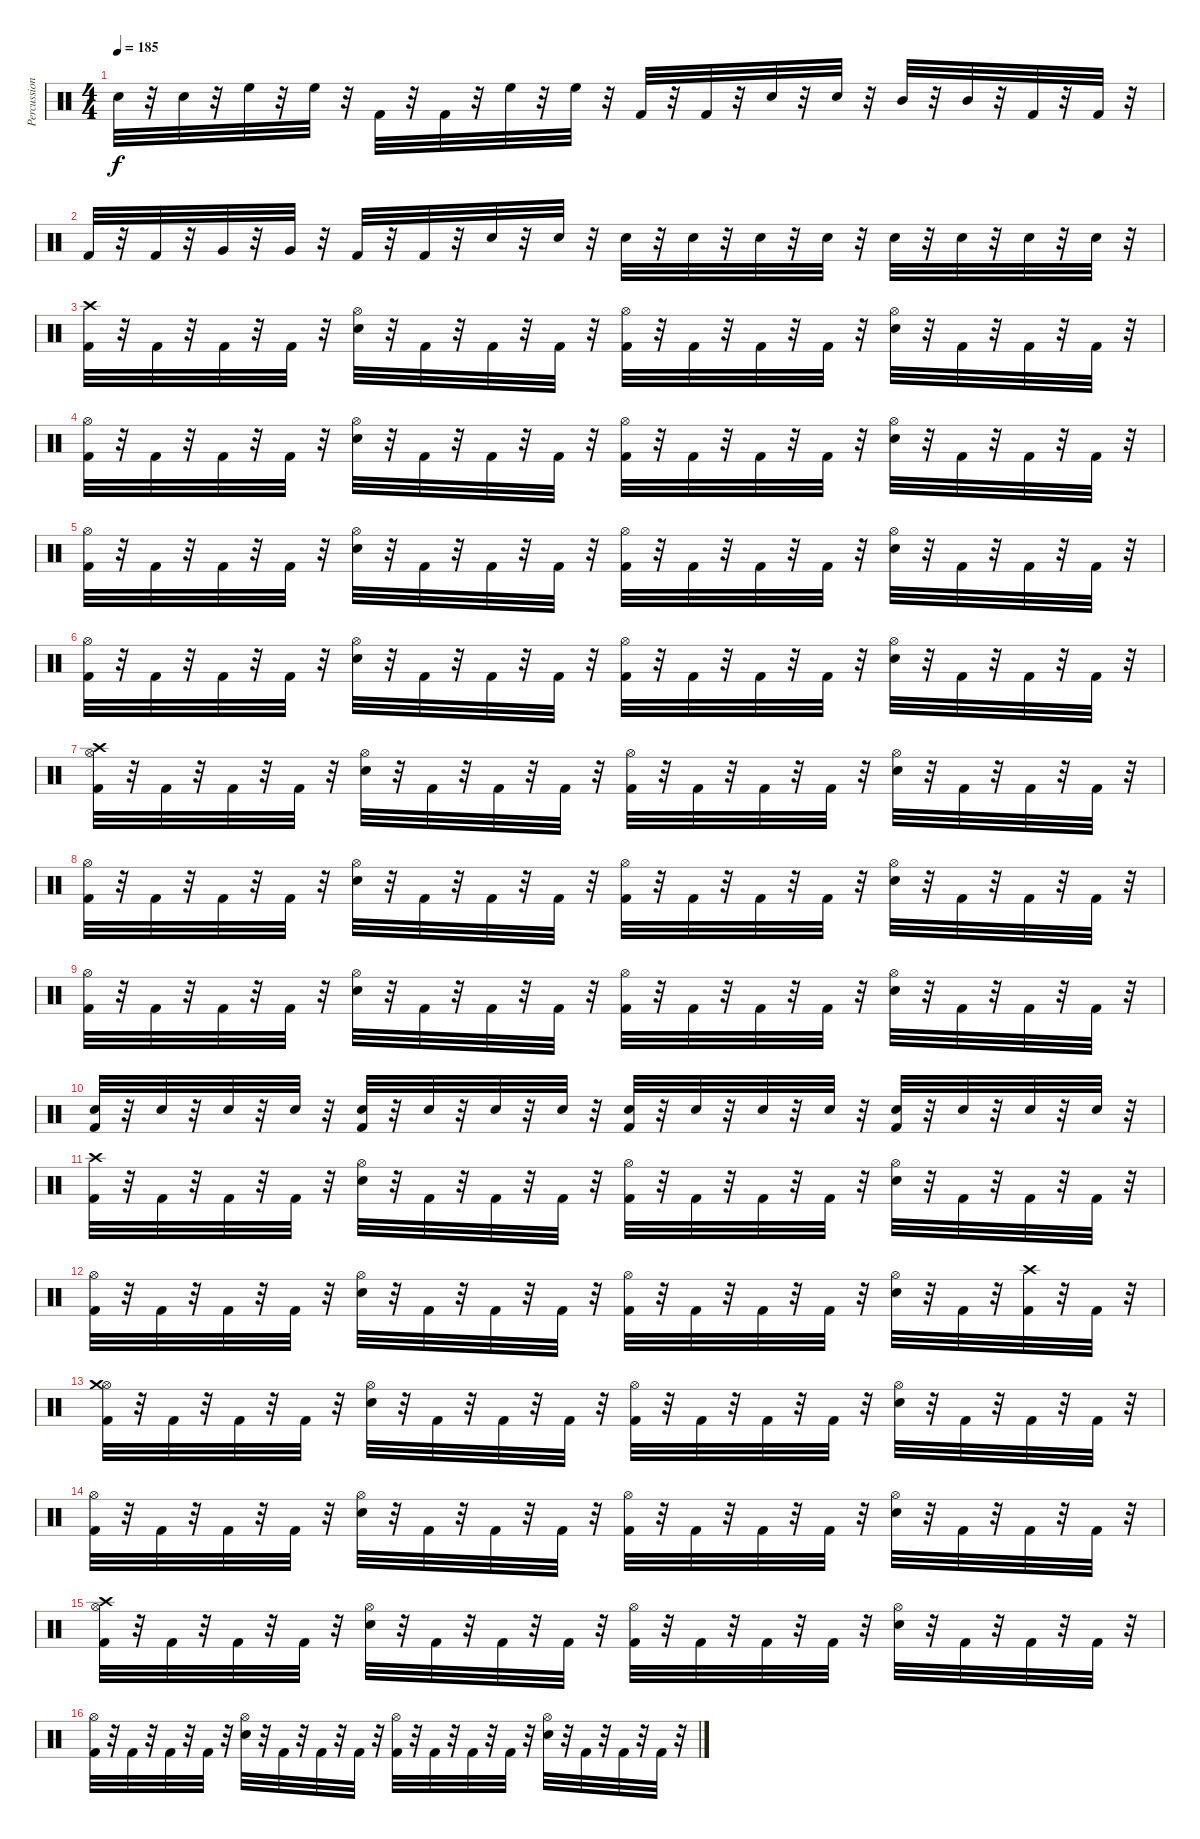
\track ("Percussion" "Percussion") {instrument percussion}
\staff {score}
\articulation defaults
\ts (4 4)
\tempo 185
\clef neutral
\ks c "Snare (hit) 2".32{dy f}
r.32 "Snare (hit) 2".32 r.32 "High Floor Tom (hit)".32 r.32 "High Floor Tom (hit)".32 r.32 "Kick (hit) 2".32 r.32 "Kick (hit) 2".32 r.32 "High Floor Tom (hit)".32 r.32 "High Floor Tom (hit)".32 r.32 "Kick (hit) 2".32 r.32 "Kick (hit) 2".32 r.32 "Snare (hit) 2".32 r.32 "Snare (hit) 2".32 r.32 "Mid Tom (hit)".32 r.32 "Mid Tom (hit)".32 r.32 "Kick (hit) 2".32 r.32 "Kick (hit) 2".32 r.32 |
"Kick (hit) 2".32 r.32 "Kick (hit) 2".32 r.32 "Very Low Tom (hit)".32 r.32 "Very Low Tom (hit)".32 r.32 "Kick (hit) 2".32 r.32 "Kick (hit) 2".32 r.32 "Snare (hit) 2".32 r.32 "Snare (hit) 2".32 r.32 "Snare (hit) 2".32 r.32 "Snare (hit) 2".32 r.32 "Snare (hit) 2".32 r.32 "Snare (hit) 2".32 r.32 "Snare (hit) 2".32 r.32 "Snare (hit) 2".32 r.32 "Snare (hit) 2".32 r.32 "Snare (hit) 2".32 r.32 |
("Kick (hit) 2" "Crash high (hit)").32 r.32 "Kick (hit) 2".32 r.32 "Kick (hit) 2".32 r.32 "Kick (hit) 2".32 r.32 ("Snare (hit) 2" "Hi-Hat (open)").32 r.32 "Kick (hit) 2".32 r.32 "Kick (hit) 2".32 r.32 "Kick (hit) 2".32 r.32 ("Kick (hit) 2" "Hi-Hat (open)").32 r.32 "Kick (hit) 2".32 r.32 "Kick (hit) 2".32 r.32 "Kick (hit) 2".32 r.32 ("Snare (hit) 2" "Hi-Hat (open)").32 r.32 "Kick (hit) 2".32 r.32 "Kick (hit) 2".32 r.32 "Kick (hit) 2".32 r.32 |
("Kick (hit) 2" "Hi-Hat (open)").32 r.32 "Kick (hit) 2".32 r.32 "Kick (hit) 2".32 r.32 "Kick (hit) 2".32 r.32 ("Snare (hit) 2" "Hi-Hat (open)").32 r.32 "Kick (hit) 2".32 r.32 "Kick (hit) 2".32 r.32 "Kick (hit) 2".32 r.32 ("Kick (hit) 2" "Hi-Hat (open)").32 r.32 "Kick (hit) 2".32 r.32 "Kick (hit) 2".32 r.32 "Kick (hit) 2".32 r.32 ("Snare (hit) 2" "Hi-Hat (open)").32 r.32 "Kick (hit) 2".32 r.32 "Kick (hit) 2".32 r.32 "Kick (hit) 2".32 r.32 |
("Kick (hit) 2" "Hi-Hat (open)").32 r.32 "Kick (hit) 2".32 r.32 "Kick (hit) 2".32 r.32 "Kick (hit) 2".32 r.32 ("Snare (hit) 2" "Hi-Hat (open)").32 r.32 "Kick (hit) 2".32 r.32 "Kick (hit) 2".32 r.32 "Kick (hit) 2".32 r.32 ("Kick (hit) 2" "Hi-Hat (open)").32 r.32 "Kick (hit) 2".32 r.32 "Kick (hit) 2".32 r.32 "Kick (hit) 2".32 r.32 ("Snare (hit) 2" "Hi-Hat (open)").32 r.32 "Kick (hit) 2".32 r.32 "Kick (hit) 2".32 r.32 "Kick (hit) 2".32 r.32 |
("Kick (hit) 2" "Hi-Hat (open)").32 r.32 "Kick (hit) 2".32 r.32 "Kick (hit) 2".32 r.32 "Kick (hit) 2".32 r.32 ("Snare (hit) 2" "Hi-Hat (open)").32 r.32 "Kick (hit) 2".32 r.32 "Kick (hit) 2".32 r.32 "Kick (hit) 2".32 r.32 ("Kick (hit) 2" "Hi-Hat (open)").32 r.32 "Kick (hit) 2".32 r.32 "Kick (hit) 2".32 r.32 "Kick (hit) 2".32 r.32 ("Snare (hit) 2" "Hi-Hat (open)").32 r.32 "Kick (hit) 2".32 r.32 "Kick (hit) 2".32 r.32 "Kick (hit) 2".32 r.32 |
("Kick (hit) 2" "Hi-Hat (open)" "Crash high (hit)").32 r.32 "Kick (hit) 2".32 r.32 "Kick (hit) 2".32 r.32 "Kick (hit) 2".32 r.32 ("Snare (hit) 2" "Hi-Hat (open)").32 r.32 "Kick (hit) 2".32 r.32 "Kick (hit) 2".32 r.32 "Kick (hit) 2".32 r.32 ("Kick (hit) 2" "Hi-Hat (open)").32 r.32 "Kick (hit) 2".32 r.32 "Kick (hit) 2".32 r.32 "Kick (hit) 2".32 r.32 ("Snare (hit) 2" "Hi-Hat (open)").32 r.32 "Kick (hit) 2".32 r.32 "Kick (hit) 2".32 r.32 "Kick (hit) 2".32 r.32 |
("Kick (hit) 2" "Hi-Hat (open)").32 r.32 "Kick (hit) 2".32 r.32 "Kick (hit) 2".32 r.32 "Kick (hit) 2".32 r.32 ("Snare (hit) 2" "Hi-Hat (open)").32 r.32 "Kick (hit) 2".32 r.32 "Kick (hit) 2".32 r.32 "Kick (hit) 2".32 r.32 ("Kick (hit) 2" "Hi-Hat (open)").32 r.32 "Kick (hit) 2".32 r.32 "Kick (hit) 2".32 r.32 "Kick (hit) 2".32 r.32 ("Snare (hit) 2" "Hi-Hat (open)").32 r.32 "Kick (hit) 2".32 r.32 "Kick (hit) 2".32 r.32 "Kick (hit) 2".32 r.32 |
("Kick (hit) 2" "Hi-Hat (open)").32 r.32 "Kick (hit) 2".32 r.32 "Kick (hit) 2".32 r.32 "Kick (hit) 2".32 r.32 ("Snare (hit) 2" "Hi-Hat (open)").32 r.32 "Kick (hit) 2".32 r.32 "Kick (hit) 2".32 r.32 "Kick (hit) 2".32 r.32 ("Kick (hit) 2" "Hi-Hat (open)").32 r.32 "Kick (hit) 2".32 r.32 "Kick (hit) 2".32 r.32 "Kick (hit) 2".32 r.32 ("Snare (hit) 2" "Hi-Hat (open)").32 r.32 "Kick (hit) 2".32 r.32 "Kick (hit) 2".32 r.32 "Kick (hit) 2".32 r.32 |
("Kick (hit) 2" "Snare (hit) 2").32 r.32 "Snare (hit) 2".32 r.32 "Snare (hit) 2".32 r.32 "Snare (hit) 2".32 r.32 ("Kick (hit) 2" "Snare (hit) 2").32 r.32 "Snare (hit) 2".32 r.32 "Snare (hit) 2".32 r.32 "Snare (hit) 2".32 r.32 ("Kick (hit) 2" "Snare (hit) 2").32 r.32 "Snare (hit) 2".32 r.32 "Snare (hit) 2".32 r.32 "Snare (hit) 2".32 r.32 ("Kick (hit) 2" "Snare (hit) 2").32 r.32 "Snare (hit) 2".32 r.32 "Snare (hit) 2".32 r.32 "Snare (hit) 2".32 r.32 |
("Kick (hit) 2" "Crash high (hit)").32 r.32 "Kick (hit) 2".32 r.32 "Kick (hit) 2".32 r.32 "Kick (hit) 2".32 r.32 ("Snare (hit) 2" "Hi-Hat (open)").32 r.32 "Kick (hit) 2".32 r.32 "Kick (hit) 2".32 r.32 "Kick (hit) 2".32 r.32 ("Kick (hit) 2" "Hi-Hat (open)").32 r.32 "Kick (hit) 2".32 r.32 "Kick (hit) 2".32 r.32 "Kick (hit) 2".32 r.32 ("Snare (hit) 2" "Hi-Hat (open)").32 r.32 "Kick (hit) 2".32 r.32 "Kick (hit) 2".32 r.32 "Kick (hit) 2".32 r.32 |
("Kick (hit) 2" "Hi-Hat (open)").32 r.32 "Kick (hit) 2".32 r.32 "Kick (hit) 2".32 r.32 "Kick (hit) 2".32 r.32 ("Snare (hit) 2" "Hi-Hat (open)").32 r.32 "Kick (hit) 2".32 r.32 "Kick (hit) 2".32 r.32 "Kick (hit) 2".32 r.32 ("Kick (hit) 2" "Hi-Hat (open)").32 r.32 "Kick (hit) 2".32 r.32 "Kick (hit) 2".32 r.32 "Kick (hit) 2".32 r.32 ("Snare (hit) 2" "Hi-Hat (open)").32 r.32 "Kick (hit) 2".32 r.32 ("Kick (hit) 2" "Crash high (hit)").32 r.32 "Kick (hit) 2".32 r.32 |
("Kick (hit) 2" "Hi-Hat (open)" "Crash medium (hit)").32 r.32 "Kick (hit) 2".32 r.32 "Kick (hit) 2".32 r.32 "Kick (hit) 2".32 r.32 ("Snare (hit) 2" "Hi-Hat (open)").32 r.32 "Kick (hit) 2".32 r.32 "Kick (hit) 2".32 r.32 "Kick (hit) 2".32 r.32 ("Kick (hit) 2" "Hi-Hat (open)").32 r.32 "Kick (hit) 2".32 r.32 "Kick (hit) 2".32 r.32 "Kick (hit) 2".32 r.32 ("Snare (hit) 2" "Hi-Hat (open)").32 r.32 "Kick (hit) 2".32 r.32 "Kick (hit) 2".32 r.32 "Kick (hit) 2".32 r.32 |
("Kick (hit) 2" "Hi-Hat (open)").32 r.32 "Kick (hit) 2".32 r.32 "Kick (hit) 2".32 r.32 "Kick (hit) 2".32 r.32 ("Snare (hit) 2" "Hi-Hat (open)").32 r.32 "Kick (hit) 2".32 r.32 "Kick (hit) 2".32 r.32 "Kick (hit) 2".32 r.32 ("Kick (hit) 2" "Hi-Hat (open)").32 r.32 "Kick (hit) 2".32 r.32 "Kick (hit) 2".32 r.32 "Kick (hit) 2".32 r.32 ("Snare (hit) 2" "Hi-Hat (open)").32 r.32 "Kick (hit) 2".32 r.32 "Kick (hit) 2".32 r.32 "Kick (hit) 2".32 r.32 |
("Kick (hit) 2" "Hi-Hat (open)" "Crash high (hit)").32 r.32 "Kick (hit) 2".32 r.32 "Kick (hit) 2".32 r.32 "Kick (hit) 2".32 r.32 ("Snare (hit) 2" "Hi-Hat (open)").32 r.32 "Kick (hit) 2".32 r.32 "Kick (hit) 2".32 r.32 "Kick (hit) 2".32 r.32 ("Kick (hit) 2" "Hi-Hat (open)").32 r.32 "Kick (hit) 2".32 r.32 "Kick (hit) 2".32 r.32 "Kick (hit) 2".32 r.32 ("Snare (hit) 2" "Hi-Hat (open)").32 r.32 "Kick (hit) 2".32 r.32 "Kick (hit) 2".32 r.32 "Kick (hit) 2".32 r.32 |
("Kick (hit) 2" "Hi-Hat (open)").32 r.32 "Kick (hit) 2".32 r.32 "Kick (hit) 2".32 r.32 "Kick (hit) 2".32 r.32 ("Snare (hit) 2" "Hi-Hat (open)").32 r.32 "Kick (hit) 2".32 r.32 "Kick (hit) 2".32 r.32 "Kick (hit) 2".32 r.32 ("Kick (hit) 2" "Hi-Hat (open)").32 r.32 "Kick (hit) 2".32 r.32 "Kick (hit) 2".32 r.32 "Kick (hit) 2".32 r.32 ("Snare (hit) 2" "Hi-Hat (open)").32 r.32 "Kick (hit) 2".32 r.32 "Kick (hit) 2".32 r.32 "Kick (hit) 2".32 r.32
